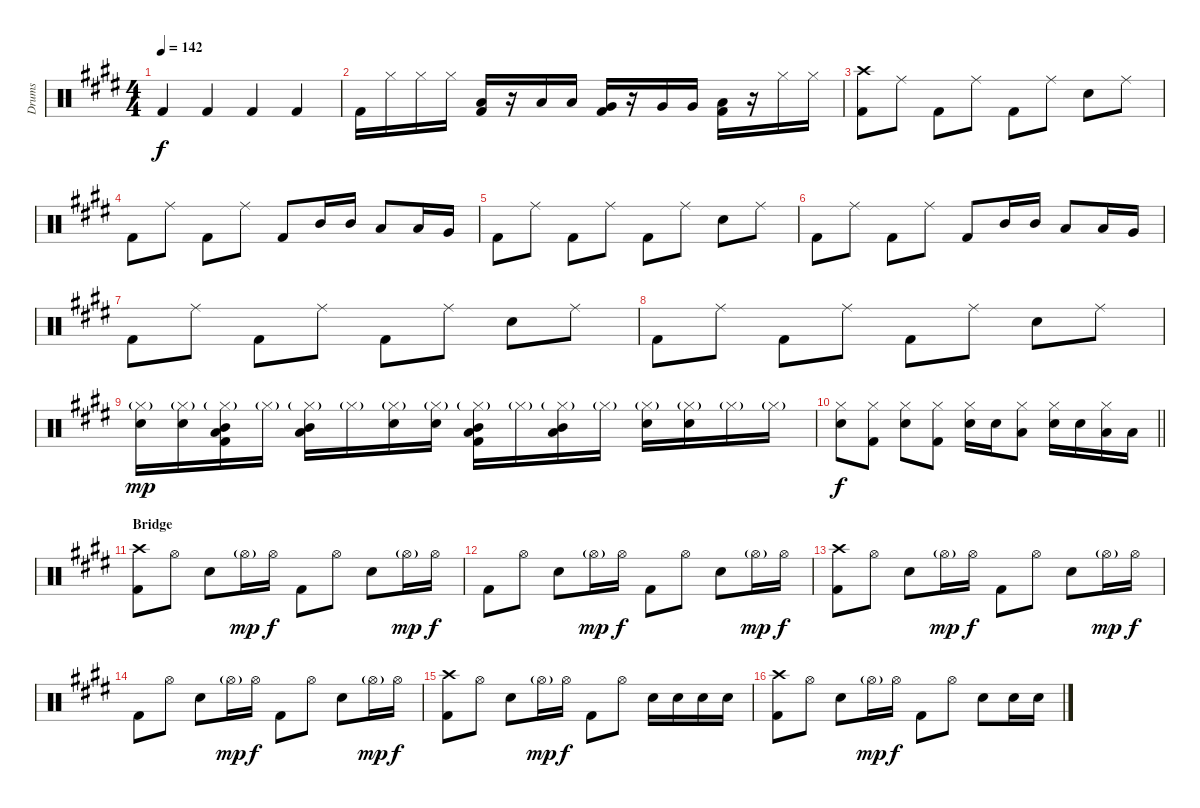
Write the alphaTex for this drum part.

\track ("Drums" "Drums") {instrument percussion}
\staff {score}
\articulation defaults
\ts (4 4)
\tempo 142
\clef neutral
\ks e "Kick (hit) 2".4{dy f} "Kick (hit) 2".4 "Kick (hit) 2".4 "Kick (hit) 2".4
|
"Kick (hit) 2".16 "Hi-Hat (closed)".16 "Hi-Hat (closed)".16 "Hi-Hat (closed)".16 ("Low Tom (hit)" "Kick (hit) 2").16 r.16 "Low Tom (hit)".16 "Low Tom (hit)".16 ("Very Low Tom (hit)" "Kick (hit) 2").16 r.16 "Very Low Tom (hit)".16 "Very Low Tom (hit)".16 ("Low Floor Tom (hit)" "Kick (hit) 2").16 r.16 "Hi-Hat (closed)".16 "Hi-Hat (closed)".16 |
("Crash high (hit)" "Kick (hit) 2").8 "Ride (middle)".8 "Kick (hit) 2".8 "Ride (middle)".8 "Kick (hit) 2".8 "Ride (middle)".8 "Electric Snare (hit)".8 "Ride (middle)".8 |
"Kick (hit) 2".8 "Ride (middle)".8 "Kick (hit) 2".8 "Ride (middle)".8 "Kick (hit) 2".8 "Mid Tom (hit)".16 "Mid Tom (hit)".16 "Low Tom (hit)".8 "Low Tom (hit)".16 "Very Low Tom (hit)".16 |
"Kick (hit) 2".8 "Ride (middle)".8 "Kick (hit) 2".8 "Ride (middle)".8 "Kick (hit) 2".8 "Ride (middle)".8 "Electric Snare (hit)".8 "Ride (middle)".8 |
"Kick (hit) 2".8 "Ride (middle)".8 "Kick (hit) 2".8 "Ride (middle)".8 "Kick (hit) 2".8 "Mid Tom (hit)".16 "Mid Tom (hit)".16 "Low Tom (hit)".8 "Low Tom (hit)".16 "Very Low Tom (hit)".16 |
"Kick (hit) 2".8 "Ride (middle)".8 "Kick (hit) 2".8 "Ride (middle)".8 "Kick (hit) 2".8 "Ride (middle)".8 "Electric Snare (hit)".8 "Ride (middle)".8 |
"Kick (hit) 2".8 "Ride (middle)".8 "Kick (hit) 2".8 "Ride (middle)".8 "Kick (hit) 2".8 "Ride (middle)".8 "Electric Snare (hit)".8 "Ride (middle)".8 |
("Hi-Hat (closed)"{g} "Electric Snare (hit)").16{dy mp} ("Hi-Hat (closed)"{g} "Electric Snare (hit)").16 ("Hi-Hat (closed)"{g} "Mid Tom (hit)" "Low Tom (hit)" "Kick (hit) 2").16 "Hi-Hat (closed)"{g}.16 ("Hi-Hat (closed)"{g} "Mid Tom (hit)" "Low Tom (hit)").16 "Hi-Hat (closed)"{g}.16 ("Hi-Hat (closed)"{g} "Electric Snare (hit)").16 ("Hi-Hat (closed)"{g} "Electric Snare (hit)").16 ("Hi-Hat (closed)"{g} "Mid Tom (hit)" "Low Tom (hit)" "Kick (hit) 2").16 "Hi-Hat (closed)"{g}.16 ("Hi-Hat (closed)"{g} "Mid Tom (hit)" "Low Tom (hit)").16 "Hi-Hat (closed)"{g}.16 ("Hi-Hat (closed)"{g} "Electric Snare (hit)").16 ("Hi-Hat (closed)"{g} "Electric Snare (hit)").16 "Hi-Hat (closed)"{g}.16 "Hi-Hat (closed)"{g}.16 |
\barLineRight lightlight
("Hi-Hat (closed)" "Electric Snare (hit)").8{dy f} ("Hi-Hat (closed)" "Kick (hit) 2").8 ("Hi-Hat (closed)" "Electric Snare (hit)").8 ("Hi-Hat (closed)" "Kick (hit) 2").8 ("Hi-Hat (closed)" "Electric Snare (hit)").16 "Electric Snare (hit)".16 ("Hi-Hat (closed)" "Low Tom (hit)").8 ("Hi-Hat (closed)" "Electric Snare (hit)").16 "Electric Snare (hit)".16 ("Hi-Hat (closed)" "Low Tom (hit)").16 "Low Tom (hit)".16 |
\section ("" "Bridge")
("Crash high (hit)" "Kick (hit) 2").8 "Hi-Hat (open)".8 "Electric Snare (hit)".8 "Hi-Hat (open)"{g}.16{dy mp} "Hi-Hat (open)".16{dy f} "Kick (hit) 2".8 "Hi-Hat (open)".8 "Electric Snare (hit)".8 "Hi-Hat (open)"{g}.16{dy mp} "Hi-Hat (open)".16{dy f} |
"Kick (hit) 2".8 "Hi-Hat (open)".8 "Electric Snare (hit)".8 "Hi-Hat (open)"{g}.16{dy mp} "Hi-Hat (open)".16{dy f} "Kick (hit) 2".8 "Hi-Hat (open)".8 "Electric Snare (hit)".8 "Hi-Hat (open)"{g}.16{dy mp} "Hi-Hat (open)".16{dy f} |
("Crash high (hit)" "Kick (hit) 2").8 "Hi-Hat (open)".8 "Electric Snare (hit)".8 "Hi-Hat (open)"{g}.16{dy mp} "Hi-Hat (open)".16{dy f} "Kick (hit) 2".8 "Hi-Hat (open)".8 "Electric Snare (hit)".8 "Hi-Hat (open)"{g}.16{dy mp} "Hi-Hat (open)".16{dy f} |
"Kick (hit) 2".8 "Hi-Hat (open)".8 "Electric Snare (hit)".8 "Hi-Hat (open)"{g}.16{dy mp} "Hi-Hat (open)".16{dy f} "Kick (hit) 2".8 "Hi-Hat (open)".8 "Electric Snare (hit)".8 "Hi-Hat (open)"{g}.16{dy mp} "Hi-Hat (open)".16{dy f} |
("Crash high (hit)" "Kick (hit) 2").8 "Hi-Hat (open)".8 "Electric Snare (hit)".8 "Hi-Hat (open)"{g}.16{dy mp} "Hi-Hat (open)".16{dy f} "Kick (hit) 2".8 "Hi-Hat (open)".8 "Electric Snare (hit)".16 "Electric Snare (hit)".16 "Electric Snare (hit)".16 "Electric Snare (hit)".16 |
("Crash high (hit)" "Kick (hit) 2").8 "Hi-Hat (open)".8 "Electric Snare (hit)".8 "Hi-Hat (open)"{g}.16{dy mp} "Hi-Hat (open)".16{dy f} "Kick (hit) 2".8 "Hi-Hat (open)".8 "Electric Snare (hit)".8 "Electric Snare (hit)".16 "Electric Snare (hit)".16
